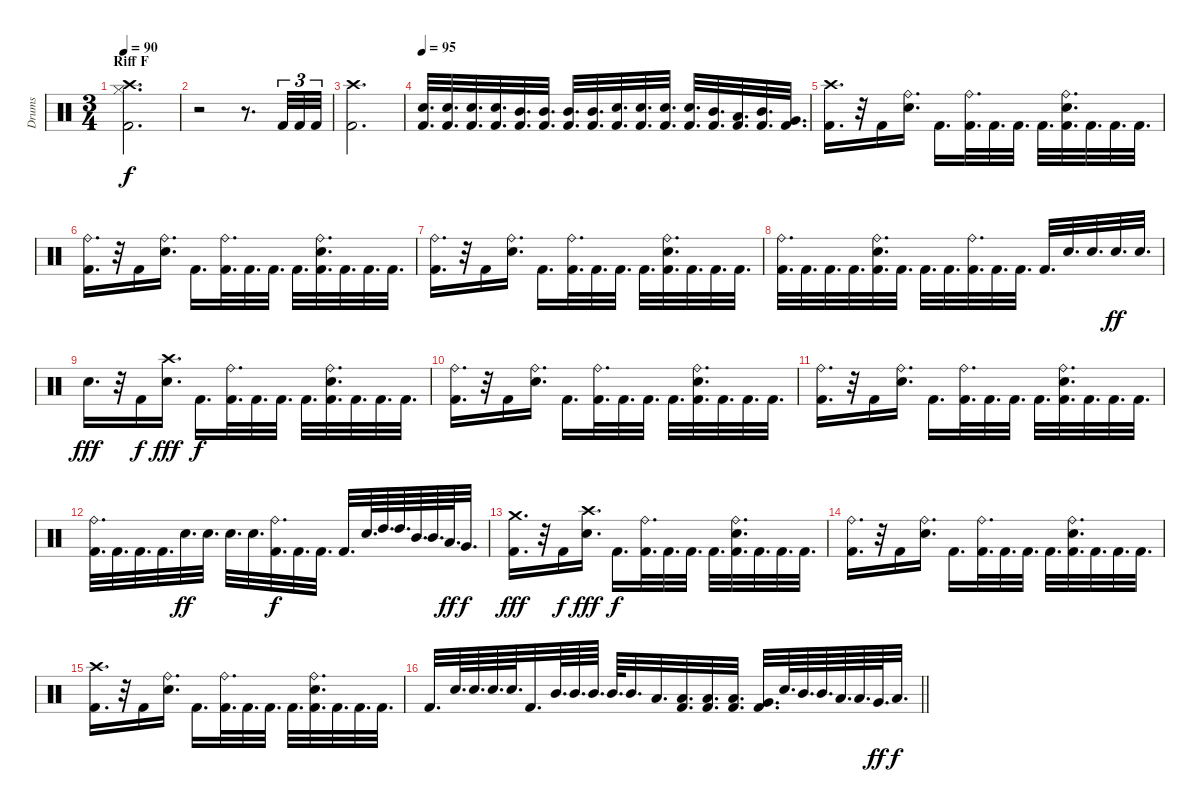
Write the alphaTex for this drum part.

\track ("Drums" "Drums") {instrument percussion}
\staff {score}
\articulation defaults
\ts (3 4)
\section ("" "Riff F")
\tempo 90
\clef neutral
\ks c
("Crash high (hit)" "Hi-Hat (closed)" "Kick (hit) 2").2{d dy f} |
r.2 r.8{d} "Kick (hit) 2".32{tu (3 2)} "Kick (hit) 2".32{tu (3 2)} "Kick (hit) 2".32{tu (3 2)} |
("Crash high (hit)" "Kick (hit) 2").2{d} |
\tempo 95
("Electric Snare (hit)" "Kick (hit) 2").32{d} ("Electric Snare (hit)" "Kick (hit) 2").32{d} ("Electric Snare (hit)" "Kick (hit) 2").32{d} ("Electric Snare (hit)" "Kick (hit) 2").32{d} ("Mid Tom (hit)" "Kick (hit) 2").32{d} ("Mid Tom (hit)" "Kick (hit) 2").32{d} ("Mid Tom (hit)" "Kick (hit) 2").32{d} ("Mid Tom (hit)" "Kick (hit) 2").32{d} ("Electric Snare (hit)" "Kick (hit) 2").32{d} ("Electric Snare (hit)" "Kick (hit) 2").32{d} ("Electric Snare (hit)" "Kick (hit) 2").32{d} ("Electric Snare (hit)" "Kick (hit) 2").32{d} ("Mid Tom (hit)" "Kick (hit) 2").32{d} ("Low Tom (hit)" "Kick (hit) 2").32{d} ("Mid Tom (hit)" "Kick (hit) 2").32{d} ("Very Low Tom (hit)" "Kick (hit) 2").32{d} |
("Crash high (hit)" "Kick (hit) 2").16{d} r.32 "Kick (hit) 2".16 ("Ride (bell)" "Electric Snare (hit)").16{d} "Kick (hit) 2".16{d} ("Ride (bell)" "Kick (hit) 2").32{d} "Kick (hit) 2".32{d} "Kick (hit) 2".32{d} "Kick (hit) 2".32{d} ("Ride (bell)" "Electric Snare (hit)" "Kick (hit) 2").32{d} "Kick (hit) 2".32{d} "Kick (hit) 2".32{d} "Kick (hit) 2".32{d} |
("Ride (bell)" "Kick (hit) 2").16{d} r.32 "Kick (hit) 2".16 ("Ride (bell)" "Electric Snare (hit)").16{d} "Kick (hit) 2".16{d} ("Ride (bell)" "Kick (hit) 2").32{d} "Kick (hit) 2".32{d} "Kick (hit) 2".32{d} "Kick (hit) 2".32{d} ("Ride (bell)" "Electric Snare (hit)" "Kick (hit) 2").32{d} "Kick (hit) 2".32{d} "Kick (hit) 2".32{d} "Kick (hit) 2".32{d} |
("Ride (bell)" "Kick (hit) 2").16{d} r.32 "Kick (hit) 2".16 ("Ride (bell)" "Electric Snare (hit)").16{d} "Kick (hit) 2".16{d} ("Ride (bell)" "Kick (hit) 2").32{d} "Kick (hit) 2".32{d} "Kick (hit) 2".32{d} "Kick (hit) 2".32{d} ("Ride (bell)" "Electric Snare (hit)" "Kick (hit) 2").32{d} "Kick (hit) 2".32{d} "Kick (hit) 2".32{d} "Kick (hit) 2".32{d} |
("Ride (bell)" "Kick (hit) 2").32{d} "Kick (hit) 2".32{d} "Kick (hit) 2".32{d} "Kick (hit) 2".32{d} ("Ride (bell)" "Electric Snare (hit)" "Kick (hit) 2").32{d} "Kick (hit) 2".32{d} "Kick (hit) 2".32{d} "Kick (hit) 2".32{d} ("Ride (bell)" "Kick (hit) 2").32{d} "Kick (hit) 2".32{d} "Kick (hit) 2".32{d} "Kick (hit) 2".32{d} "Electric Snare (hit)".32{d} "Electric Snare (hit)".32{d} "Electric Snare (hit)".32{d dy ff} "Electric Snare (hit)".32{d} |
"Electric Snare (hit)".16{d dy fff} r.32 "Kick (hit) 2".16{dy f} ("Crash high (hit)" "Electric Snare (hit)").16{d dy fff} "Kick (hit) 2".16{d dy f} ("Ride (bell)" "Kick (hit) 2").32{d} "Kick (hit) 2".32{d} "Kick (hit) 2".32{d} "Kick (hit) 2".32{d} ("Ride (bell)" "Electric Snare (hit)" "Kick (hit) 2").32{d} "Kick (hit) 2".32{d} "Kick (hit) 2".32{d} "Kick (hit) 2".32{d} |
("Ride (bell)" "Kick (hit) 2").16{d} r.32 "Kick (hit) 2".16 ("Ride (bell)" "Electric Snare (hit)").16{d} "Kick (hit) 2".16{d} ("Ride (bell)" "Kick (hit) 2").32{d} "Kick (hit) 2".32{d} "Kick (hit) 2".32{d} "Kick (hit) 2".32{d} ("Ride (bell)" "Electric Snare (hit)" "Kick (hit) 2").32{d} "Kick (hit) 2".32{d} "Kick (hit) 2".32{d} "Kick (hit) 2".32{d} |
("Ride (bell)" "Kick (hit) 2").16{d} r.32 "Kick (hit) 2".16 ("Ride (bell)" "Electric Snare (hit)").16{d} "Kick (hit) 2".16{d} ("Ride (bell)" "Kick (hit) 2").32{d} "Kick (hit) 2".32{d} "Kick (hit) 2".32{d} "Kick (hit) 2".32{d} ("Ride (bell)" "Electric Snare (hit)" "Kick (hit) 2").32{d} "Kick (hit) 2".32{d} "Kick (hit) 2".32{d} "Kick (hit) 2".32{d} |
("Ride (bell)" "Kick (hit) 2").32{d} "Kick (hit) 2".32{d} "Kick (hit) 2".32{d} "Kick (hit) 2".32{d} "Electric Snare (hit)".32{d dy ff} "Electric Snare (hit)".32{d} "Electric Snare (hit)".32{d} "Electric Snare (hit)".32{d} ("Ride (bell)" "Kick (hit) 2").32{d dy f} "Kick (hit) 2".32{d} "Kick (hit) 2".32{d} "Kick (hit) 2".32{d} "Electric Snare (hit)".64{d} "High Tom (hit)".64{d} "High Tom (hit)".64{d} "Mid Tom (hit)".64{d} "Mid Tom (hit)".64{d} "Low Tom (hit)".64{d dy ff} "Very Low Tom (hit)".32{d dy f} |
("Crash medium (hit)" "Kick (hit) 2").16{d dy fff} r.32 "Kick (hit) 2".16{dy f} ("Crash high (hit)" "Electric Snare (hit)").16{d dy fff} "Kick (hit) 2".16{d dy f} ("Ride (bell)" "Kick (hit) 2").32{d} "Kick (hit) 2".32{d} "Kick (hit) 2".32{d} "Kick (hit) 2".32{d} ("Ride (bell)" "Electric Snare (hit)" "Kick (hit) 2").32{d} "Kick (hit) 2".32{d} "Kick (hit) 2".32{d} "Kick (hit) 2".32{d} |
("Ride (bell)" "Kick (hit) 2").16{d} r.32 "Kick (hit) 2".16 ("Ride (bell)" "Electric Snare (hit)").16{d} "Kick (hit) 2".16{d} ("Ride (bell)" "Kick (hit) 2").32{d} "Kick (hit) 2".32{d} "Kick (hit) 2".32{d} "Kick (hit) 2".32{d} ("Ride (bell)" "Electric Snare (hit)" "Kick (hit) 2").32{d} "Kick (hit) 2".32{d} "Kick (hit) 2".32{d} "Kick (hit) 2".32{d} |
("Crash high (hit)" "Kick (hit) 2").16{d} r.32 "Kick (hit) 2".16 ("Ride (bell)" "Electric Snare (hit)").16{d} "Kick (hit) 2".16{d} ("Ride (bell)" "Kick (hit) 2").32{d} "Kick (hit) 2".32{d} "Kick (hit) 2".32{d} "Kick (hit) 2".32{d} ("Ride (bell)" "Electric Snare (hit)" "Kick (hit) 2").32{d} "Kick (hit) 2".32{d} "Kick (hit) 2".32{d} "Kick (hit) 2".32{d} |
\barLineRight lightlight "Kick (hit) 2".32{d} "Electric Snare (hit)".64{d} "Electric Snare (hit)".64{d} "Electric Snare (hit)".64{d} "Electric Snare (hit)".64{d} "Kick (hit) 2".32{d} "Mid Tom (hit)".64{d} "Mid Tom (hit)".64{d} "Mid Tom (hit)".64{d} "Mid Tom (hit)".64{d} "Mid Tom (hit)".32{d} "Low Tom (hit)".32{d}
("Low Tom (hit)" "Kick (hit) 2").32{d} ("Low Tom (hit)" "Kick (hit) 2").32{d} ("Low Tom (hit)" "Kick (hit) 2").32{d} ("Very Low Tom (hit)" "Kick (hit) 2").32{d} "Electric Snare (hit)".64{d} "Mid Tom (hit)".64{d} "Mid Tom (hit)".64{d} "Low Tom (hit)".64{d} "Low Tom (hit)".64{d} "Very Low Tom (hit)".64{d dy ff} "Low Floor Tom (hit)".32{d dy f}
